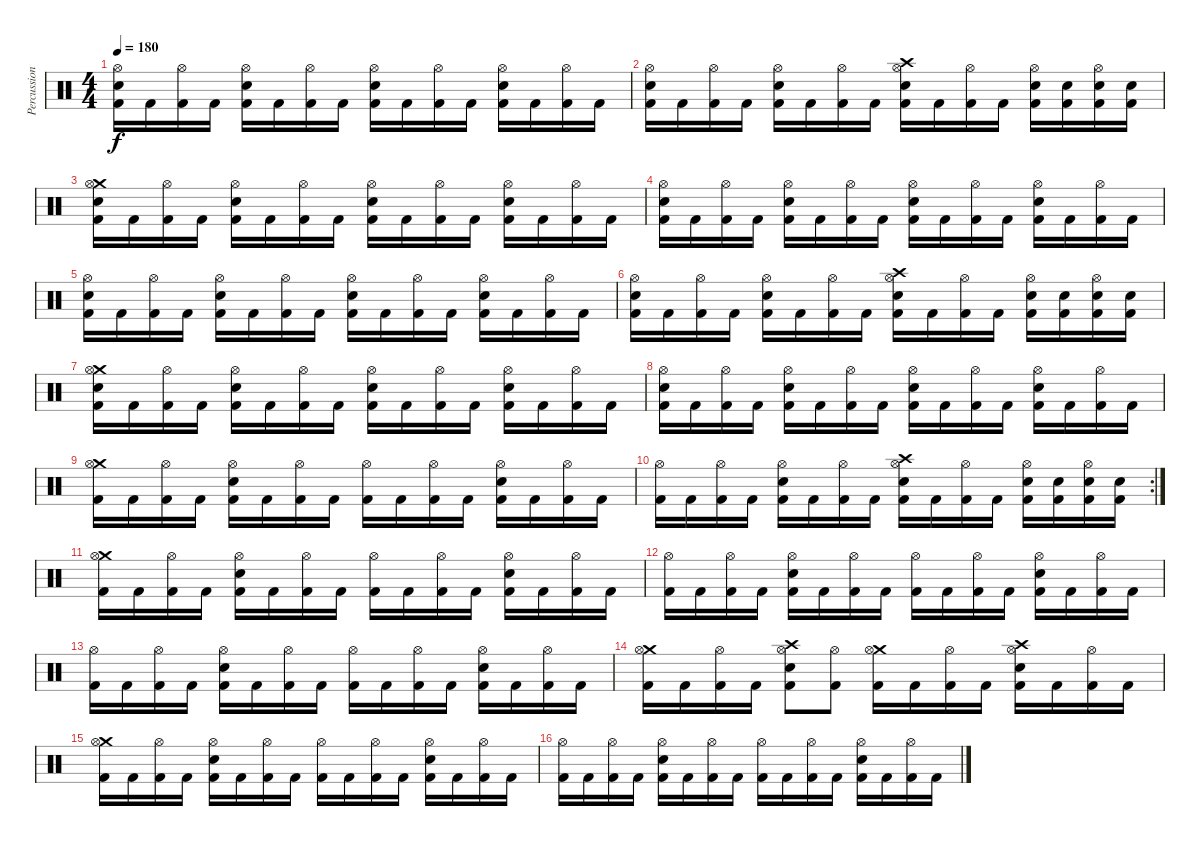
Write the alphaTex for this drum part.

\track ("Percussion" "Percussion") {instrument percussion}
\staff {score}
\articulation defaults
\ts (4 4)
\tempo 180
\clef neutral
\ks c
("Hi-Hat (open)" "Electric Snare (hit)" "Kick (hit) 2").16{dy f} "Kick (hit) 2".16 ("Hi-Hat (open)" "Kick (hit) 2").16 "Kick (hit) 2".16 ("Hi-Hat (open)" "Electric Snare (hit)" "Kick (hit) 2").16 "Kick (hit) 2".16 ("Hi-Hat (open)" "Kick (hit) 2").16 "Kick (hit) 2".16 ("Hi-Hat (open)" "Electric Snare (hit)" "Kick (hit) 2").16 "Kick (hit) 2".16 ("Hi-Hat (open)" "Kick (hit) 2").16 "Kick (hit) 2".16 ("Hi-Hat (open)" "Electric Snare (hit)" "Kick (hit) 2").16 "Kick (hit) 2".16 ("Hi-Hat (open)" "Kick (hit) 2").16 "Kick (hit) 2".16 |
("Hi-Hat (open)" "Electric Snare (hit)" "Kick (hit) 2").16 "Kick (hit) 2".16 ("Hi-Hat (open)" "Kick (hit) 2").16 "Kick (hit) 2".16 ("Hi-Hat (open)" "Electric Snare (hit)" "Kick (hit) 2").16 "Kick (hit) 2".16 ("Hi-Hat (open)" "Kick (hit) 2").16 "Kick (hit) 2".16 ("Crash high (hit)" "Hi-Hat (open)" "Electric Snare (hit)" "Kick (hit) 2").16 "Kick (hit) 2".16 ("Hi-Hat (open)" "Kick (hit) 2").16 "Kick (hit) 2".16 ("Hi-Hat (open)" "Electric Snare (hit)" "Kick (hit) 2").16 ("Electric Snare (hit)" "Kick (hit) 2").16 ("Hi-Hat (open)" "Electric Snare (hit)" "Kick (hit) 2").16 ("Electric Snare (hit)" "Kick (hit) 2").16 |
("Crash medium (hit)" "Hi-Hat (open)" "Electric Snare (hit)" "Kick (hit) 2").16 "Kick (hit) 2".16 ("Hi-Hat (open)" "Kick (hit) 2").16 "Kick (hit) 2".16 ("Hi-Hat (open)" "Electric Snare (hit)" "Kick (hit) 2").16 "Kick (hit) 2".16 ("Hi-Hat (open)" "Kick (hit) 2").16 "Kick (hit) 2".16 ("Hi-Hat (open)" "Electric Snare (hit)" "Kick (hit) 2").16 "Kick (hit) 2".16 ("Hi-Hat (open)" "Kick (hit) 2").16 "Kick (hit) 2".16 ("Hi-Hat (open)" "Electric Snare (hit)" "Kick (hit) 2").16 "Kick (hit) 2".16 ("Hi-Hat (open)" "Kick (hit) 2").16 "Kick (hit) 2".16 |
("Hi-Hat (open)" "Electric Snare (hit)" "Kick (hit) 2").16 "Kick (hit) 2".16 ("Hi-Hat (open)" "Kick (hit) 2").16 "Kick (hit) 2".16 ("Hi-Hat (open)" "Electric Snare (hit)" "Kick (hit) 2").16 "Kick (hit) 2".16 ("Hi-Hat (open)" "Kick (hit) 2").16 "Kick (hit) 2".16 ("Hi-Hat (open)" "Electric Snare (hit)" "Kick (hit) 2").16 "Kick (hit) 2".16 ("Hi-Hat (open)" "Kick (hit) 2").16 "Kick (hit) 2".16 ("Hi-Hat (open)" "Electric Snare (hit)" "Kick (hit) 2").16 "Kick (hit) 2".16 ("Hi-Hat (open)" "Kick (hit) 2").16 "Kick (hit) 2".16 |
("Hi-Hat (open)" "Electric Snare (hit)" "Kick (hit) 2").16 "Kick (hit) 2".16 ("Hi-Hat (open)" "Kick (hit) 2").16 "Kick (hit) 2".16 ("Hi-Hat (open)" "Electric Snare (hit)" "Kick (hit) 2").16 "Kick (hit) 2".16 ("Hi-Hat (open)" "Kick (hit) 2").16 "Kick (hit) 2".16 ("Hi-Hat (open)" "Electric Snare (hit)" "Kick (hit) 2").16 "Kick (hit) 2".16 ("Hi-Hat (open)" "Kick (hit) 2").16 "Kick (hit) 2".16 ("Hi-Hat (open)" "Electric Snare (hit)" "Kick (hit) 2").16 "Kick (hit) 2".16 ("Hi-Hat (open)" "Kick (hit) 2").16 "Kick (hit) 2".16 |
("Hi-Hat (open)" "Electric Snare (hit)" "Kick (hit) 2").16 "Kick (hit) 2".16 ("Hi-Hat (open)" "Kick (hit) 2").16 "Kick (hit) 2".16 ("Hi-Hat (open)" "Electric Snare (hit)" "Kick (hit) 2").16 "Kick (hit) 2".16 ("Hi-Hat (open)" "Kick (hit) 2").16 "Kick (hit) 2".16 ("Crash high (hit)" "Hi-Hat (open)" "Electric Snare (hit)" "Kick (hit) 2").16 "Kick (hit) 2".16 ("Hi-Hat (open)" "Kick (hit) 2").16 "Kick (hit) 2".16 ("Hi-Hat (open)" "Electric Snare (hit)" "Kick (hit) 2").16 ("Electric Snare (hit)" "Kick (hit) 2").16 ("Hi-Hat (open)" "Electric Snare (hit)" "Kick (hit) 2").16 ("Electric Snare (hit)" "Kick (hit) 2").16 |
("Crash medium (hit)" "Hi-Hat (open)" "Electric Snare (hit)" "Kick (hit) 2").16 "Kick (hit) 2".16 ("Hi-Hat (open)" "Kick (hit) 2").16 "Kick (hit) 2".16 ("Hi-Hat (open)" "Electric Snare (hit)" "Kick (hit) 2").16 "Kick (hit) 2".16 ("Hi-Hat (open)" "Kick (hit) 2").16 "Kick (hit) 2".16 ("Hi-Hat (open)" "Electric Snare (hit)" "Kick (hit) 2").16 "Kick (hit) 2".16 ("Hi-Hat (open)" "Kick (hit) 2").16 "Kick (hit) 2".16 ("Hi-Hat (open)" "Electric Snare (hit)" "Kick (hit) 2").16 "Kick (hit) 2".16 ("Hi-Hat (open)" "Kick (hit) 2").16 "Kick (hit) 2".16 |
("Hi-Hat (open)" "Electric Snare (hit)" "Kick (hit) 2").16 "Kick (hit) 2".16 ("Hi-Hat (open)" "Kick (hit) 2").16 "Kick (hit) 2".16 ("Hi-Hat (open)" "Electric Snare (hit)" "Kick (hit) 2").16 "Kick (hit) 2".16 ("Hi-Hat (open)" "Kick (hit) 2").16 "Kick (hit) 2".16 ("Hi-Hat (open)" "Electric Snare (hit)" "Kick (hit) 2").16 "Kick (hit) 2".16 ("Hi-Hat (open)" "Kick (hit) 2").16 "Kick (hit) 2".16 ("Hi-Hat (open)" "Electric Snare (hit)" "Kick (hit) 2").16 "Kick (hit) 2".16 ("Hi-Hat (open)" "Kick (hit) 2").16 "Kick (hit) 2".16 |
("Crash medium (hit)" "Hi-Hat (open)" "Kick (hit) 2").16 "Kick (hit) 2".16 ("Hi-Hat (open)" "Kick (hit) 2").16 "Kick (hit) 2".16 ("Hi-Hat (open)" "Electric Snare (hit)" "Kick (hit) 2").16 "Kick (hit) 2".16 ("Hi-Hat (open)" "Kick (hit) 2").16 "Kick (hit) 2".16 ("Hi-Hat (open)" "Kick (hit) 2").16 "Kick (hit) 2".16 ("Hi-Hat (open)" "Kick (hit) 2").16 "Kick (hit) 2".16 ("Hi-Hat (open)" "Electric Snare (hit)" "Kick (hit) 2").16 "Kick (hit) 2".16 ("Hi-Hat (open)" "Kick (hit) 2").16 "Kick (hit) 2".16 |
\rc 2
("Hi-Hat (open)" "Kick (hit) 2").16 "Kick (hit) 2".16 ("Hi-Hat (open)" "Kick (hit) 2").16 "Kick (hit) 2".16 ("Hi-Hat (open)" "Electric Snare (hit)" "Kick (hit) 2").16 "Kick (hit) 2".16 ("Hi-Hat (open)" "Kick (hit) 2").16 "Kick (hit) 2".16 ("Crash high (hit)" "Hi-Hat (open)" "Electric Snare (hit)" "Kick (hit) 2").16 "Kick (hit) 2".16 ("Hi-Hat (open)" "Kick (hit) 2").16 "Kick (hit) 2".16 ("Hi-Hat (open)" "Electric Snare (hit)" "Kick (hit) 2").16 ("Electric Snare (hit)" "Kick (hit) 2").16 ("Hi-Hat (open)" "Electric Snare (hit)" "Kick (hit) 2").16 ("Electric Snare (hit)" "Kick (hit) 2").16 |
("Crash medium (hit)" "Hi-Hat (open)" "Kick (hit) 2").16 "Kick (hit) 2".16 ("Hi-Hat (open)" "Kick (hit) 2").16 "Kick (hit) 2".16 ("Hi-Hat (open)" "Electric Snare (hit)" "Kick (hit) 2").16 "Kick (hit) 2".16 ("Hi-Hat (open)" "Kick (hit) 2").16 "Kick (hit) 2".16 ("Hi-Hat (open)" "Kick (hit) 2").16 "Kick (hit) 2".16 ("Hi-Hat (open)" "Kick (hit) 2").16 "Kick (hit) 2".16 ("Hi-Hat (open)" "Electric Snare (hit)" "Kick (hit) 2").16 "Kick (hit) 2".16 ("Hi-Hat (open)" "Kick (hit) 2").16 "Kick (hit) 2".16 |
("Hi-Hat (open)" "Kick (hit) 2").16 "Kick (hit) 2".16 ("Hi-Hat (open)" "Kick (hit) 2").16 "Kick (hit) 2".16 ("Hi-Hat (open)" "Electric Snare (hit)" "Kick (hit) 2").16 "Kick (hit) 2".16 ("Hi-Hat (open)" "Kick (hit) 2").16 "Kick (hit) 2".16 ("Hi-Hat (open)" "Kick (hit) 2").16 "Kick (hit) 2".16 ("Hi-Hat (open)" "Kick (hit) 2").16 "Kick (hit) 2".16 ("Hi-Hat (open)" "Electric Snare (hit)" "Kick (hit) 2").16 "Kick (hit) 2".16 ("Hi-Hat (open)" "Kick (hit) 2").16 "Kick (hit) 2".16 |
("Hi-Hat (open)" "Kick (hit) 2").16 "Kick (hit) 2".16 ("Hi-Hat (open)" "Kick (hit) 2").16 "Kick (hit) 2".16 ("Hi-Hat (open)" "Electric Snare (hit)" "Kick (hit) 2").16 "Kick (hit) 2".16 ("Hi-Hat (open)" "Kick (hit) 2").16 "Kick (hit) 2".16 ("Hi-Hat (open)" "Kick (hit) 2").16 "Kick (hit) 2".16 ("Hi-Hat (open)" "Kick (hit) 2").16 "Kick (hit) 2".16 ("Hi-Hat (open)" "Electric Snare (hit)" "Kick (hit) 2").16 "Kick (hit) 2".16 ("Hi-Hat (open)" "Kick (hit) 2").16 "Kick (hit) 2".16 |
("Crash medium (hit)" "Hi-Hat (open)" "Kick (hit) 2").16 "Kick (hit) 2".16 ("Hi-Hat (open)" "Kick (hit) 2").16 "Kick (hit) 2".16 ("Crash high (hit)" "Hi-Hat (open)" "Electric Snare (hit)" "Kick (hit) 2").8 ("Hi-Hat (open)" "Kick (hit) 2").8 ("Crash medium (hit)" "Hi-Hat (open)" "Kick (hit) 2").16 "Kick (hit) 2".16 ("Hi-Hat (open)" "Kick (hit) 2").16 "Kick (hit) 2".16 ("Crash high (hit)" "Hi-Hat (open)" "Electric Snare (hit)" "Kick (hit) 2").16 "Kick (hit) 2".16 ("Hi-Hat (open)" "Kick (hit) 2").16 "Kick (hit) 2".16 |
("Crash medium (hit)" "Hi-Hat (open)" "Kick (hit) 2").16 "Kick (hit) 2".16 ("Hi-Hat (open)" "Kick (hit) 2").16 "Kick (hit) 2".16 ("Hi-Hat (open)" "Electric Snare (hit)" "Kick (hit) 2").16 "Kick (hit) 2".16 ("Hi-Hat (open)" "Kick (hit) 2").16 "Kick (hit) 2".16 ("Hi-Hat (open)" "Kick (hit) 2").16 "Kick (hit) 2".16 ("Hi-Hat (open)" "Kick (hit) 2").16 "Kick (hit) 2".16 ("Hi-Hat (open)" "Electric Snare (hit)" "Kick (hit) 2").16 "Kick (hit) 2".16 ("Hi-Hat (open)" "Kick (hit) 2").16 "Kick (hit) 2".16 |
("Hi-Hat (open)" "Kick (hit) 2").16 "Kick (hit) 2".16 ("Hi-Hat (open)" "Kick (hit) 2").16 "Kick (hit) 2".16 ("Hi-Hat (open)" "Electric Snare (hit)" "Kick (hit) 2").16 "Kick (hit) 2".16 ("Hi-Hat (open)" "Kick (hit) 2").16 "Kick (hit) 2".16 ("Hi-Hat (open)" "Kick (hit) 2").16 "Kick (hit) 2".16 ("Hi-Hat (open)" "Kick (hit) 2").16 "Kick (hit) 2".16 ("Hi-Hat (open)" "Electric Snare (hit)" "Kick (hit) 2").16 "Kick (hit) 2".16 ("Hi-Hat (open)" "Kick (hit) 2").16 "Kick (hit) 2".16
